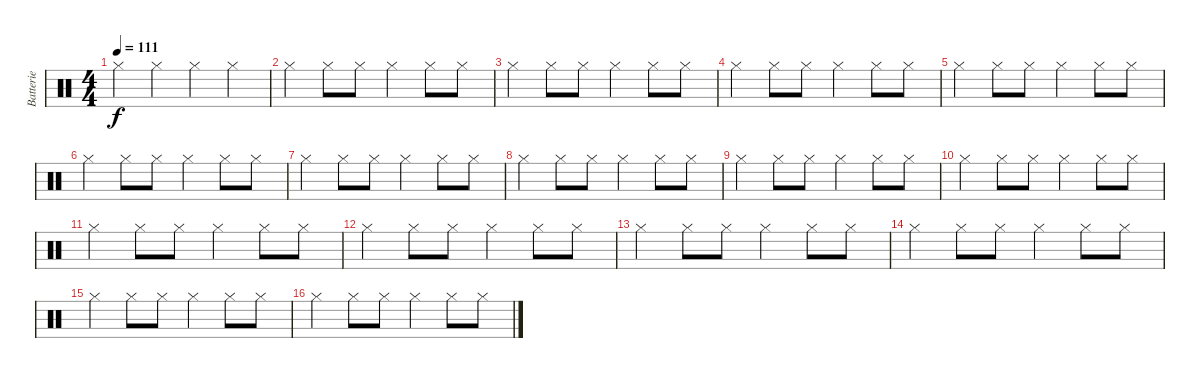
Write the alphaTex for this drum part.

\track ("Batterie" "Batterie") {instrument percussion}
\staff {score}
\articulation defaults
\ts (4 4)
\tempo 111
\clef neutral
\ks c "Hi-Hat (closed)".4{dy f} "Hi-Hat (closed)".4 "Hi-Hat (closed)".4 "Hi-Hat (closed)".4
|
"Hi-Hat (closed)".4 "Hi-Hat (closed)".8 "Hi-Hat (closed)".8 "Hi-Hat (closed)".4 "Hi-Hat (closed)".8 "Hi-Hat (closed)".8 |
"Hi-Hat (closed)".4 "Hi-Hat (closed)".8 "Hi-Hat (closed)".8 "Hi-Hat (closed)".4 "Hi-Hat (closed)".8 "Hi-Hat (closed)".8 |
"Hi-Hat (closed)".4 "Hi-Hat (closed)".8 "Hi-Hat (closed)".8 "Hi-Hat (closed)".4 "Hi-Hat (closed)".8 "Hi-Hat (closed)".8 |
"Hi-Hat (closed)".4 "Hi-Hat (closed)".8 "Hi-Hat (closed)".8 "Hi-Hat (closed)".4 "Hi-Hat (closed)".8 "Hi-Hat (closed)".8 |
"Hi-Hat (closed)".4 "Hi-Hat (closed)".8 "Hi-Hat (closed)".8 "Hi-Hat (closed)".4 "Hi-Hat (closed)".8 "Hi-Hat (closed)".8 |
"Hi-Hat (closed)".4 "Hi-Hat (closed)".8 "Hi-Hat (closed)".8 "Hi-Hat (closed)".4 "Hi-Hat (closed)".8 "Hi-Hat (closed)".8 |
"Hi-Hat (closed)".4 "Hi-Hat (closed)".8 "Hi-Hat (closed)".8 "Hi-Hat (closed)".4 "Hi-Hat (closed)".8 "Hi-Hat (closed)".8 |
"Hi-Hat (closed)".4 "Hi-Hat (closed)".8 "Hi-Hat (closed)".8 "Hi-Hat (closed)".4 "Hi-Hat (closed)".8 "Hi-Hat (closed)".8 |
"Hi-Hat (closed)".4 "Hi-Hat (closed)".8 "Hi-Hat (closed)".8 "Hi-Hat (closed)".4 "Hi-Hat (closed)".8 "Hi-Hat (closed)".8 |
"Hi-Hat (closed)".4 "Hi-Hat (closed)".8 "Hi-Hat (closed)".8 "Hi-Hat (closed)".4 "Hi-Hat (closed)".8 "Hi-Hat (closed)".8 |
"Hi-Hat (closed)".4 "Hi-Hat (closed)".8 "Hi-Hat (closed)".8 "Hi-Hat (closed)".4 "Hi-Hat (closed)".8 "Hi-Hat (closed)".8 |
"Hi-Hat (closed)".4 "Hi-Hat (closed)".8 "Hi-Hat (closed)".8 "Hi-Hat (closed)".4 "Hi-Hat (closed)".8 "Hi-Hat (closed)".8 |
"Hi-Hat (closed)".4 "Hi-Hat (closed)".8 "Hi-Hat (closed)".8 "Hi-Hat (closed)".4 "Hi-Hat (closed)".8 "Hi-Hat (closed)".8 |
"Hi-Hat (closed)".4 "Hi-Hat (closed)".8 "Hi-Hat (closed)".8 "Hi-Hat (closed)".4 "Hi-Hat (closed)".8 "Hi-Hat (closed)".8 |
"Hi-Hat (closed)".4 "Hi-Hat (closed)".8 "Hi-Hat (closed)".8 "Hi-Hat (closed)".4 "Hi-Hat (closed)".8 "Hi-Hat (closed)".8
